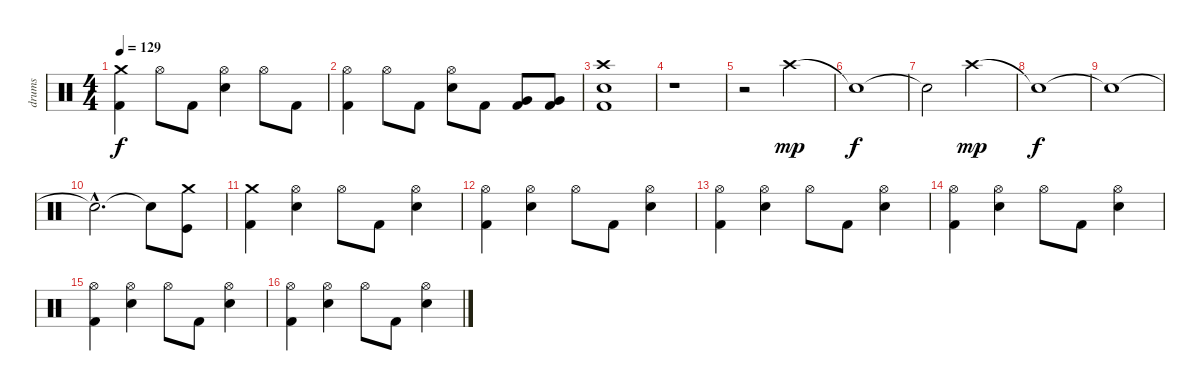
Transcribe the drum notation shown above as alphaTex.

\track ("drums" "drums") {instrument percussion}
\staff {score}
\articulation defaults
\ts (4 4)
\tempo 129
\clef neutral
\ks c
("Kick (hit) 2" "Crash medium (hit)").4{dy f} "Hi-Hat (open)".8 "Kick (hit) 2".8 ("Hi-Hat (open)" "Snare (hit) 2").4 "Hi-Hat (open)".8 "Kick (hit) 2".8 |
("Kick (hit) 2" "Hi-Hat (open)").4 "Hi-Hat (open)".8 "Kick (hit) 2".8 ("Hi-Hat (open)" "Snare (hit) 2").8 "Kick (hit) 2".8 ("Kick (hit) 2" "Very Low Tom (hit)").8 ("Kick (hit) 2" "Very Low Tom (hit)").8 |
("Kick (hit) 2" "Crash high (hit)" "Snare (hit) 2").1 |
r.1 |
r.2 "Crash high (hit)".2{dy mp} |
"Snare (hit)"{t}.1{dy f} |
"Snare (hit)"{t}.2 "Crash high (hit)".2{dy mp} |
"Snare (hit)"{t}.1{dy f} |
"Snare (hit)"{t}.1 |
"Snare (hit)"{hac t}.2{d} "Snare (hit)"{t}.8 ("Kick (hit)" "Crash medium (hit)").8 |
("Kick (hit) 2" "Crash medium (hit)").4 ("Hi-Hat (open)" "Snare (hit) 2").4 "Hi-Hat (open)".8 "Kick (hit) 2".8 ("Hi-Hat (open)" "Snare (hit) 2").4 |
("Kick (hit) 2" "Hi-Hat (open)").4 ("Hi-Hat (open)" "Snare (hit) 2").4 "Hi-Hat (open)".8 "Kick (hit) 2".8 ("Hi-Hat (open)" "Snare (hit) 2").4 |
("Kick (hit) 2" "Hi-Hat (open)").4 ("Hi-Hat (open)" "Snare (hit) 2").4 "Hi-Hat (open)".8 "Kick (hit) 2".8 ("Hi-Hat (open)" "Snare (hit) 2").4 |
("Kick (hit) 2" "Hi-Hat (open)").4 ("Hi-Hat (open)" "Snare (hit) 2").4 "Hi-Hat (open)".8 "Kick (hit) 2".8 ("Hi-Hat (open)" "Snare (hit) 2").4 |
("Kick (hit) 2" "Hi-Hat (open)").4 ("Hi-Hat (open)" "Snare (hit) 2").4 "Hi-Hat (open)".8 "Kick (hit) 2".8 ("Hi-Hat (open)" "Snare (hit) 2").4 |
("Kick (hit) 2" "Hi-Hat (open)").4 ("Hi-Hat (open)" "Snare (hit) 2").4 "Hi-Hat (open)".8 "Kick (hit) 2".8 ("Hi-Hat (open)" "Snare (hit) 2").4
